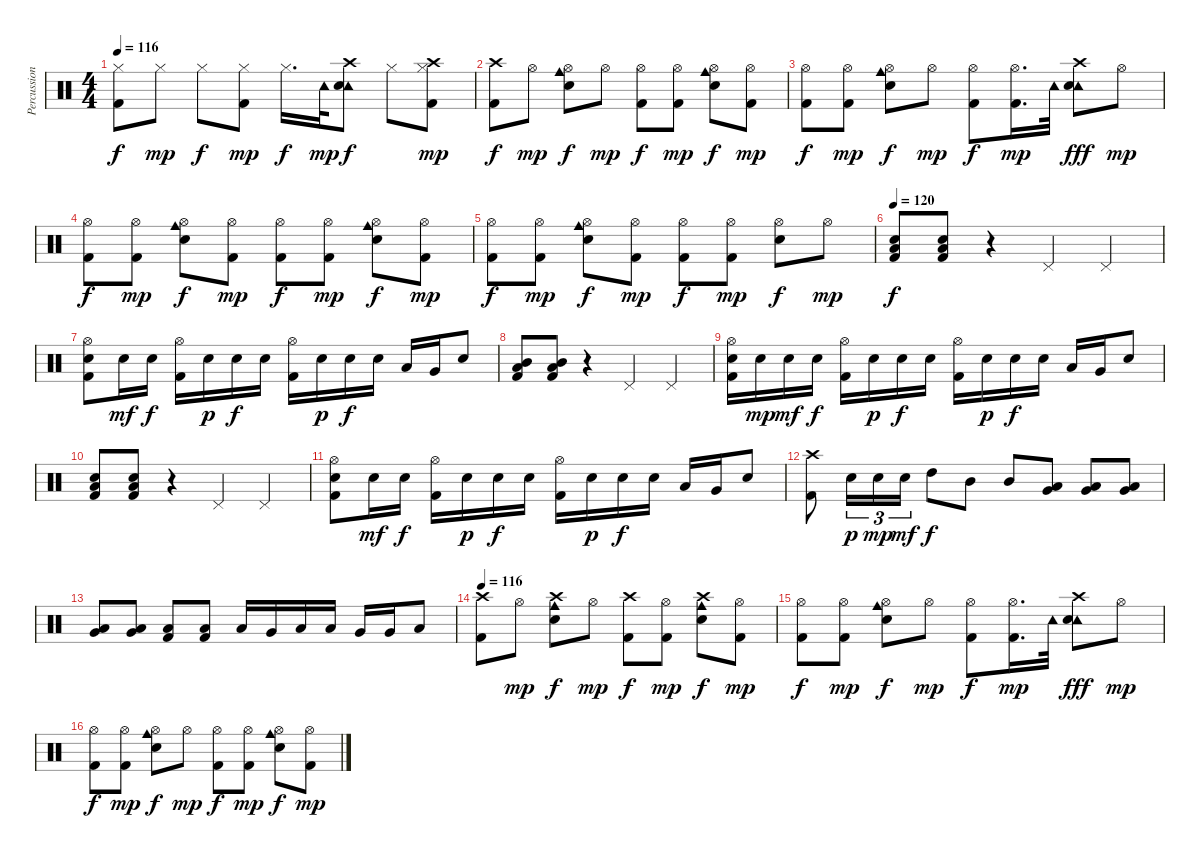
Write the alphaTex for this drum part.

\track ("Percussion (Peter)" "Percussion") {instrument percussion}
\staff {score}
\articulation defaults
\ts (4 4)
\tempo 116
\clef neutral
\ks c
("Hi-Hat (closed)" "Kick (hit) 2").8{dy f} "Hi-Hat (closed)".8{dy mp} "Hi-Hat (closed)".8{dy f} ("Hi-Hat (closed)" "Kick (hit) 2").8{dy mp} "Hi-Hat (closed)".16{d dy f} "Tambourine (hit)".32{dy mp} ("Crash high (hit)" "Tambourine (hit)" "Snare (hit) 2").8{dy f} "Hi-Hat (closed)".8 ("Crash high (hit)" "Hi-Hat (closed)" "Kick (hit) 2").8{dy mp} |
("Crash high (hit)" "Kick (hit) 2").8{dy f} "Hi-Hat (open)".8{dy mp} ("Cowbell medium (hit)" "Hi-Hat (open)" "Snare (hit) 2").8{dy f} "Hi-Hat (open)".8{dy mp} ("Hi-Hat (open)" "Kick (hit) 2").8{dy f} ("Hi-Hat (open)" "Kick (hit) 2").8{dy mp} ("Cowbell medium (hit)" "Hi-Hat (open)" "Snare (hit) 2").8{dy f} ("Hi-Hat (open)" "Kick (hit) 2").8{dy mp} |
("Hi-Hat (open)" "Kick (hit) 2").8{dy f} ("Hi-Hat (open)" "Kick (hit) 2").8{dy mp} ("Cowbell medium (hit)" "Hi-Hat (open)" "Snare (hit) 2").8{dy f} "Hi-Hat (open)".8{dy mp} ("Hi-Hat (open)" "Kick (hit) 2").8{dy f} ("Hi-Hat (open)" "Kick (hit) 2").16{d dy mp} "Tambourine (hit)".32 ("Crash high (hit)" "Tambourine (hit)" "Snare (hit) 2").8{dy fff} "Hi-Hat (open)".8{dy mp} |
("Hi-Hat (open)" "Kick (hit) 2").8{dy f} ("Hi-Hat (open)" "Kick (hit) 2").8{dy mp} ("Cowbell medium (hit)" "Hi-Hat (open)" "Snare (hit) 2").8{dy f} ("Hi-Hat (open)" "Kick (hit) 2").8{dy mp} ("Hi-Hat (open)" "Kick (hit) 2").8{dy f} ("Hi-Hat (open)" "Kick (hit) 2").8{dy mp} ("Cowbell medium (hit)" "Hi-Hat (open)" "Snare (hit) 2").8{dy f} ("Hi-Hat (open)" "Kick (hit) 2").8{dy mp} |
("Hi-Hat (open)" "Kick (hit) 2").8{dy f} ("Hi-Hat (open)" "Kick (hit) 2").8{dy mp} ("Cowbell medium (hit)" "Hi-Hat (open)" "Snare (hit) 2").8{dy f} ("Hi-Hat (open)" "Kick (hit) 2").8{dy mp} ("Hi-Hat (open)" "Kick (hit) 2").8{dy f} ("Hi-Hat (open)" "Kick (hit) 2").8{dy mp} ("Hi-Hat (open)" "Snare (hit) 2").8{dy f} "Hi-Hat (open)".8{dy mp} |
\tempo 120
("Low Tom (hit)" "Snare (hit) 2" "Kick (hit) 2").8{dy f} ("Low Tom (hit)" "Snare (hit) 2" "Kick (hit) 2").8 r.4 "Pedal Hi-Hat (hit)".4 "Pedal Hi-Hat (hit)".4 |
("Hi-Hat (open)" "Snare (hit) 2" "Kick (hit) 2").8 "Snare (hit) 2".16{dy mf} "Snare (hit) 2".16{dy f} ("Hi-Hat (open)" "Kick (hit) 2").16 "Snare (hit) 2".16{dy p} "Snare (hit) 2".16{dy f} "Snare (hit) 2".16 ("Hi-Hat (open)" "Kick (hit) 2").16 "Snare (hit) 2".16{dy p} "Snare (hit) 2".16{dy f} "Snare (hit) 2".16 "Low Tom (hit)".16 "Very Low Tom (hit)".16 "Snare (hit) 2".8 |
("Mid Tom (hit)" "Low Tom (hit)" "Kick (hit) 2").8 ("Mid Tom (hit)" "Low Tom (hit)" "Kick (hit) 2").8 r.4 "Pedal Hi-Hat (hit)".4 "Pedal Hi-Hat (hit)".4 |
("Hi-Hat (open)" "Snare (hit) 2" "Kick (hit) 2").16 "Snare (hit) 2".16{dy mp} "Snare (hit) 2".16{dy mf} "Snare (hit) 2".16{dy f} ("Hi-Hat (open)" "Kick (hit) 2").16 "Snare (hit) 2".16{dy p} "Snare (hit) 2".16{dy f} "Snare (hit) 2".16 ("Hi-Hat (open)" "Kick (hit) 2").16 "Snare (hit) 2".16{dy p} "Snare (hit) 2".16{dy f} "Snare (hit) 2".16 "Low Tom (hit)".16 "Very Low Tom (hit)".16 "Snare (hit) 2".8 |
("Low Tom (hit)" "Snare (hit) 2" "Kick (hit) 2").8 ("Low Tom (hit)" "Snare (hit) 2" "Kick (hit) 2").8 r.4 "Pedal Hi-Hat (hit)".4 "Pedal Hi-Hat (hit)".4 |
("Hi-Hat (open)" "Snare (hit) 2" "Kick (hit) 2").8 "Snare (hit) 2".16{dy mf} "Snare (hit) 2".16{dy f} ("Hi-Hat (open)" "Kick (hit) 2").16 "Snare (hit) 2".16{dy p} "Snare (hit) 2".16{dy f} "Snare (hit) 2".16 ("Hi-Hat (open)" "Kick (hit) 2").16 "Snare (hit) 2".16{dy p} "Snare (hit) 2".16{dy f} "Snare (hit) 2".16 "Low Tom (hit)".16 "Very Low Tom (hit)".16 "Snare (hit) 2".8 |
("Crash high (hit)" "Kick (hit) 2").8 "Snare (hit) 2".16{tu (3 2) dy p} "Snare (hit) 2".16{tu (3 2) dy mp} "Snare (hit) 2".16{tu (3 2) dy mf} "High Tom (hit)".8{dy f} "Mid Tom (hit)".8 "Mid Tom (hit)".8 ("Low Tom (hit)" "Very Low Tom (hit)").8 ("Low Tom (hit)" "Very Low Tom (hit)").8 ("Low Floor Tom (hit)" "Very Low Tom (hit)").8 |
("Very Low Tom (hit)" "Low Floor Tom (hit)").8 ("Very Low Tom (hit)" "Low Floor Tom (hit)").8 ("Low Floor Tom (hit)" "Kick (hit) 2").8 ("Low Floor Tom (hit)" "Kick (hit) 2").8 "Low Tom (hit)".16 "Very Low Tom (hit)".16 "Low Floor Tom (hit)".16 "Low Tom (hit)".16 "Very Low Tom (hit)".16 "Very Low Tom (hit)".16 "Low Floor Tom (hit)".8 |
\tempo 116
("Crash high (hit)" "Kick (hit) 2").8 "Hi-Hat (open)".8{dy mp} ("Cowbell medium (hit)" "Crash high (hit)" "Snare (hit) 2").8{dy f} "Hi-Hat (open)".8{dy mp} ("Crash high (hit)" "Kick (hit) 2").8{dy f} ("Hi-Hat (open)" "Kick (hit) 2").8{dy mp} ("Cowbell medium (hit)" "Crash high (hit)" "Snare (hit) 2").8{dy f} ("Hi-Hat (open)" "Kick (hit) 2").8{dy mp} |
("Hi-Hat (open)" "Kick (hit) 2").8{dy f} ("Hi-Hat (open)" "Kick (hit) 2").8{dy mp} ("Cowbell medium (hit)" "Hi-Hat (open)" "Snare (hit) 2").8{dy f} "Hi-Hat (open)".8{dy mp} ("Hi-Hat (open)" "Kick (hit) 2").8{dy f} ("Hi-Hat (open)" "Kick (hit) 2").16{d dy mp} "Tambourine (hit)".32 ("Crash high (hit)" "Tambourine (hit)" "Snare (hit) 2").8{dy fff} "Hi-Hat (open)".8{dy mp} |
("Hi-Hat (open)" "Kick (hit) 2").8{dy f} ("Hi-Hat (open)" "Kick (hit) 2").8{dy mp} ("Cowbell medium (hit)" "Hi-Hat (open)" "Snare (hit) 2").8{dy f} "Hi-Hat (open)".8{dy mp} ("Hi-Hat (open)" "Kick (hit) 2").8{dy f} ("Hi-Hat (open)" "Kick (hit) 2").8{dy mp} ("Cowbell medium (hit)" "Hi-Hat (open)" "Snare (hit) 2").8{dy f} ("Hi-Hat (open)" "Kick (hit) 2").8{dy mp}
